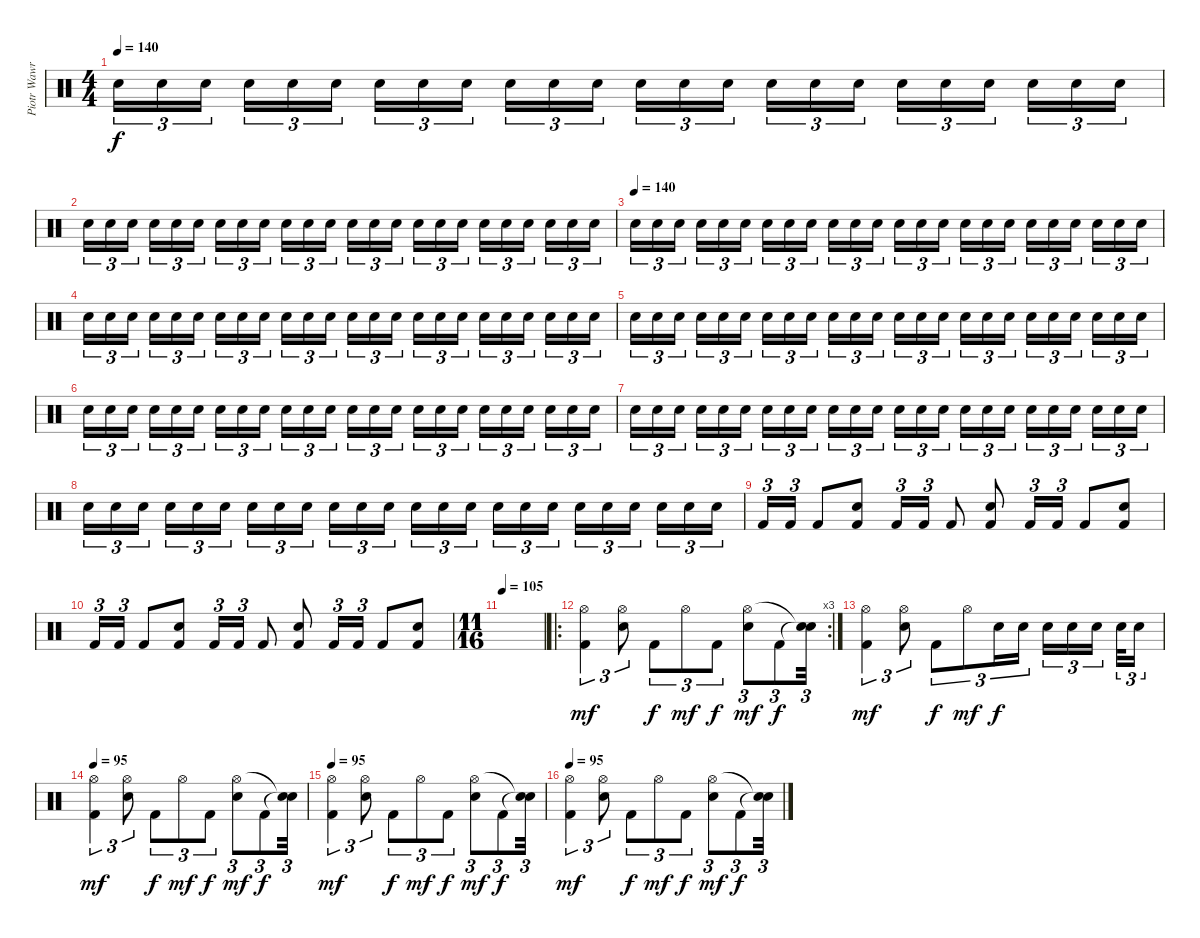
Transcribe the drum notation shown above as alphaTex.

\track ("Piotr Wawrzeniunk (drums)" "Piotr Wawr") {instrument percussion}
\staff {score}
\articulation defaults
\ts (4 4)
\tempo 140
\clef neutral
\ks c "Electric Snare (hit)".16{tu (3 2) dy f volume 11} "Electric Snare (hit)".16{tu (3 2)} "Electric Snare (hit)".16{tu (3 2)} "Electric Snare (hit)".16{tu (3 2)} "Electric Snare (hit)".16{tu (3 2)} "Electric Snare (hit)".16{tu (3 2)} "Electric Snare (hit)".16{tu (3 2)} "Electric Snare (hit)".16{tu (3 2)} "Electric Snare (hit)".16{tu (3 2)} "Electric Snare (hit)".16{tu (3 2)} "Electric Snare (hit)".16{tu (3 2)} "Electric Snare (hit)".16{tu (3 2)} "Electric Snare (hit)".16{tu (3 2)} "Electric Snare (hit)".16{tu (3 2)} "Electric Snare (hit)".16{tu (3 2)} "Electric Snare (hit)".16{tu (3 2)} "Electric Snare (hit)".16{tu (3 2)} "Electric Snare (hit)".16{tu (3 2)} "Electric Snare (hit)".16{tu (3 2)} "Electric Snare (hit)".16{tu (3 2)} "Electric Snare (hit)".16{tu (3 2)} "Electric Snare (hit)".16{tu (3 2)} "Electric Snare (hit)".16{tu (3 2)} "Electric Snare (hit)".16{tu (3 2)}
|
"Electric Snare (hit)".16{tu (3 2)} "Electric Snare (hit)".16{tu (3 2)} "Electric Snare (hit)".16{tu (3 2)} "Electric Snare (hit)".16{tu (3 2)} "Electric Snare (hit)".16{tu (3 2)} "Electric Snare (hit)".16{tu (3 2)} "Electric Snare (hit)".16{tu (3 2)} "Electric Snare (hit)".16{tu (3 2)} "Electric Snare (hit)".16{tu (3 2)} "Electric Snare (hit)".16{tu (3 2)} "Electric Snare (hit)".16{tu (3 2)} "Electric Snare (hit)".16{tu (3 2)} "Electric Snare (hit)".16{tu (3 2)} "Electric Snare (hit)".16{tu (3 2)} "Electric Snare (hit)".16{tu (3 2)} "Electric Snare (hit)".16{tu (3 2)} "Electric Snare (hit)".16{tu (3 2)} "Electric Snare (hit)".16{tu (3 2)} "Electric Snare (hit)".16{tu (3 2)} "Electric Snare (hit)".16{tu (3 2)} "Electric Snare (hit)".16{tu (3 2)} "Electric Snare (hit)".16{tu (3 2)} "Electric Snare (hit)".16{tu (3 2)} "Electric Snare (hit)".16{tu (3 2)} |
\tempo (140)
"Electric Snare (hit)".16{tu (3 2) volume 11} "Electric Snare (hit)".16{tu (3 2)} "Electric Snare (hit)".16{tu (3 2)} "Electric Snare (hit)".16{tu (3 2)} "Electric Snare (hit)".16{tu (3 2)} "Electric Snare (hit)".16{tu (3 2)} "Electric Snare (hit)".16{tu (3 2)} "Electric Snare (hit)".16{tu (3 2)} "Electric Snare (hit)".16{tu (3 2)} "Electric Snare (hit)".16{tu (3 2)} "Electric Snare (hit)".16{tu (3 2)} "Electric Snare (hit)".16{tu (3 2)} "Electric Snare (hit)".16{tu (3 2)} "Electric Snare (hit)".16{tu (3 2)} "Electric Snare (hit)".16{tu (3 2)} "Electric Snare (hit)".16{tu (3 2)} "Electric Snare (hit)".16{tu (3 2)} "Electric Snare (hit)".16{tu (3 2)} "Electric Snare (hit)".16{tu (3 2)} "Electric Snare (hit)".16{tu (3 2)} "Electric Snare (hit)".16{tu (3 2)} "Electric Snare (hit)".16{tu (3 2)} "Electric Snare (hit)".16{tu (3 2)} "Electric Snare (hit)".16{tu (3 2)} |
"Electric Snare (hit)".16{tu (3 2)} "Electric Snare (hit)".16{tu (3 2)} "Electric Snare (hit)".16{tu (3 2)} "Electric Snare (hit)".16{tu (3 2)} "Electric Snare (hit)".16{tu (3 2)} "Electric Snare (hit)".16{tu (3 2)} "Electric Snare (hit)".16{tu (3 2)} "Electric Snare (hit)".16{tu (3 2)} "Electric Snare (hit)".16{tu (3 2)} "Electric Snare (hit)".16{tu (3 2)} "Electric Snare (hit)".16{tu (3 2)} "Electric Snare (hit)".16{tu (3 2)} "Electric Snare (hit)".16{tu (3 2)} "Electric Snare (hit)".16{tu (3 2)} "Electric Snare (hit)".16{tu (3 2)} "Electric Snare (hit)".16{tu (3 2)} "Electric Snare (hit)".16{tu (3 2)} "Electric Snare (hit)".16{tu (3 2)} "Electric Snare (hit)".16{tu (3 2)} "Electric Snare (hit)".16{tu (3 2)} "Electric Snare (hit)".16{tu (3 2)} "Electric Snare (hit)".16{tu (3 2)} "Electric Snare (hit)".16{tu (3 2)} "Electric Snare (hit)".16{tu (3 2)} |
"Electric Snare (hit)".16{tu (3 2)} "Electric Snare (hit)".16{tu (3 2)} "Electric Snare (hit)".16{tu (3 2)} "Electric Snare (hit)".16{tu (3 2)} "Electric Snare (hit)".16{tu (3 2)} "Electric Snare (hit)".16{tu (3 2)} "Electric Snare (hit)".16{tu (3 2)} "Electric Snare (hit)".16{tu (3 2)} "Electric Snare (hit)".16{tu (3 2)} "Electric Snare (hit)".16{tu (3 2)} "Electric Snare (hit)".16{tu (3 2)} "Electric Snare (hit)".16{tu (3 2)} "Electric Snare (hit)".16{tu (3 2)} "Electric Snare (hit)".16{tu (3 2)} "Electric Snare (hit)".16{tu (3 2)} "Electric Snare (hit)".16{tu (3 2)} "Electric Snare (hit)".16{tu (3 2)} "Electric Snare (hit)".16{tu (3 2)} "Electric Snare (hit)".16{tu (3 2)} "Electric Snare (hit)".16{tu (3 2)} "Electric Snare (hit)".16{tu (3 2)} "Electric Snare (hit)".16{tu (3 2)} "Electric Snare (hit)".16{tu (3 2)} "Electric Snare (hit)".16{tu (3 2)} |
"Electric Snare (hit)".16{tu (3 2)} "Electric Snare (hit)".16{tu (3 2)} "Electric Snare (hit)".16{tu (3 2)} "Electric Snare (hit)".16{tu (3 2)} "Electric Snare (hit)".16{tu (3 2)} "Electric Snare (hit)".16{tu (3 2)} "Electric Snare (hit)".16{tu (3 2)} "Electric Snare (hit)".16{tu (3 2)} "Electric Snare (hit)".16{tu (3 2)} "Electric Snare (hit)".16{tu (3 2)} "Electric Snare (hit)".16{tu (3 2)} "Electric Snare (hit)".16{tu (3 2)} "Electric Snare (hit)".16{tu (3 2)} "Electric Snare (hit)".16{tu (3 2)} "Electric Snare (hit)".16{tu (3 2)} "Electric Snare (hit)".16{tu (3 2)} "Electric Snare (hit)".16{tu (3 2)} "Electric Snare (hit)".16{tu (3 2)} "Electric Snare (hit)".16{tu (3 2)} "Electric Snare (hit)".16{tu (3 2)} "Electric Snare (hit)".16{tu (3 2)} "Electric Snare (hit)".16{tu (3 2)} "Electric Snare (hit)".16{tu (3 2)} "Electric Snare (hit)".16{tu (3 2)} |
"Electric Snare (hit)".16{tu (3 2)} "Electric Snare (hit)".16{tu (3 2)} "Electric Snare (hit)".16{tu (3 2)} "Electric Snare (hit)".16{tu (3 2)} "Electric Snare (hit)".16{tu (3 2)} "Electric Snare (hit)".16{tu (3 2)} "Electric Snare (hit)".16{tu (3 2)} "Electric Snare (hit)".16{tu (3 2)} "Electric Snare (hit)".16{tu (3 2)} "Electric Snare (hit)".16{tu (3 2)} "Electric Snare (hit)".16{tu (3 2)} "Electric Snare (hit)".16{tu (3 2)} "Electric Snare (hit)".16{tu (3 2)} "Electric Snare (hit)".16{tu (3 2)} "Electric Snare (hit)".16{tu (3 2)} "Electric Snare (hit)".16{tu (3 2)} "Electric Snare (hit)".16{tu (3 2)} "Electric Snare (hit)".16{tu (3 2)} "Electric Snare (hit)".16{tu (3 2)} "Electric Snare (hit)".16{tu (3 2)} "Electric Snare (hit)".16{tu (3 2)} "Electric Snare (hit)".16{tu (3 2)} "Electric Snare (hit)".16{tu (3 2)} "Electric Snare (hit)".16{tu (3 2)} |
"Electric Snare (hit)".16{tu (3 2)} "Electric Snare (hit)".16{tu (3 2)} "Electric Snare (hit)".16{tu (3 2)} "Electric Snare (hit)".16{tu (3 2)} "Electric Snare (hit)".16{tu (3 2)} "Electric Snare (hit)".16{tu (3 2)} "Electric Snare (hit)".16{tu (3 2)} "Electric Snare (hit)".16{tu (3 2)} "Electric Snare (hit)".16{tu (3 2)} "Electric Snare (hit)".16{tu (3 2)} "Electric Snare (hit)".16{tu (3 2)} "Electric Snare (hit)".16{tu (3 2)} "Electric Snare (hit)".16{tu (3 2)} "Electric Snare (hit)".16{tu (3 2)} "Electric Snare (hit)".16{tu (3 2)} "Electric Snare (hit)".16{tu (3 2)} "Electric Snare (hit)".16{tu (3 2)} "Electric Snare (hit)".16{tu (3 2)} "Electric Snare (hit)".16{tu (3 2)} "Electric Snare (hit)".16{tu (3 2)} "Electric Snare (hit)".16{tu (3 2)} "Electric Snare (hit)".16{tu (3 2)} "Electric Snare (hit)".16{tu (3 2)} "Electric Snare (hit)".16{tu (3 2)} |
"Kick (hit) 2".16{tu (3 2)} "Kick (hit) 2".16{tu (3 2)} "Kick (hit) 2".8 ("Electric Snare (hit)" "Kick (hit) 2").8 "Kick (hit) 2".16{tu (3 2)} "Kick (hit) 2".16{tu (3 2)} "Kick (hit) 2".8 ("Electric Snare (hit)" "Kick (hit) 2").8 "Kick (hit) 2".16{tu (3 2)} "Kick (hit) 2".16{tu (3 2)} "Kick (hit) 2".8 ("Electric Snare (hit)" "Kick (hit) 2").8 |
"Kick (hit) 2".16{tu (3 2)} "Kick (hit) 2".16{tu (3 2)} "Kick (hit) 2".8 ("Electric Snare (hit)" "Kick (hit) 2").8 "Kick (hit) 2".16{tu (3 2)} "Kick (hit) 2".16{tu (3 2)} "Kick (hit) 2".8 ("Electric Snare (hit)" "Kick (hit) 2").8 "Kick (hit) 2".16{tu (3 2)} "Kick (hit) 2".16{tu (3 2)} "Kick (hit) 2".8 ("Electric Snare (hit)" "Kick (hit) 2").8 |
\ts (11 16)
\tempo 105
|
\ro
\rc 3
("Kick (hit) 2" "Hi-Hat (open)").4{tu (3 2) dy mf} ("Electric Snare (hit)" "Hi-Hat (open)").8{tu (3 2)} "Kick (hit) 2".8{tu (3 2) dy f} "Hi-Hat (open)".8{tu (3 2) dy mf} "Kick (hit) 2".8{tu (3 2) dy f} ("Electric Snare (hit)" "Hi-Hat (open)").8{tu (3 2) dy mf} "Kick (hit) 2".8{tu (3 2) dy f} ("Snare (hit)"{t} "Snare (hit)"{t}).32{tu (3 2)} |
("Kick (hit) 2" "Hi-Hat (open)").4{tu (3 2) dy mf} ("Electric Snare (hit)" "Hi-Hat (open)").8{tu (3 2)} "Kick (hit) 2".8{tu (3 2) dy f} "Hi-Hat (open)".8{tu (3 2) dy mf} "Electric Snare (hit)".16{tu (3 2) dy f} "Electric Snare (hit)".16{tu (3 2)} "Electric Snare (hit)".16{tu (3 2)} "Electric Snare (hit)".16{tu (3 2)} "Electric Snare (hit)".16{tu (3 2)} "Electric Snare (hit)".32{tu (3 2)} "Electric Snare (hit)".16{tu (3 2)} |
\tempo 95
("Kick (hit) 2" "Hi-Hat (open)").4{tu (3 2) dy mf} ("Electric Snare (hit)" "Hi-Hat (open)").8{tu (3 2)} "Kick (hit) 2".8{tu (3 2) dy f} "Hi-Hat (open)".8{tu (3 2) dy mf} "Kick (hit) 2".8{tu (3 2) dy f} ("Electric Snare (hit)" "Hi-Hat (open)").8{tu (3 2) dy mf} "Kick (hit) 2".8{tu (3 2) dy f} ("Snare (hit)"{t} "Snare (hit)"{t}).32{tu (3 2)} |
\tempo 95
("Kick (hit) 2" "Hi-Hat (open)").4{tu (3 2) dy mf} ("Electric Snare (hit)" "Hi-Hat (open)").8{tu (3 2)} "Kick (hit) 2".8{tu (3 2) dy f} "Hi-Hat (open)".8{tu (3 2) dy mf} "Kick (hit) 2".8{tu (3 2) dy f} ("Electric Snare (hit)" "Hi-Hat (open)").8{tu (3 2) dy mf} "Kick (hit) 2".8{tu (3 2) dy f} ("Snare (hit)"{t} "Snare (hit)"{t}).32{tu (3 2)} |
\tempo 95
("Kick (hit) 2" "Hi-Hat (open)").4{tu (3 2) dy mf} ("Electric Snare (hit)" "Hi-Hat (open)").8{tu (3 2)} "Kick (hit) 2".8{tu (3 2) dy f} "Hi-Hat (open)".8{tu (3 2) dy mf} "Kick (hit) 2".8{tu (3 2) dy f} ("Electric Snare (hit)" "Hi-Hat (open)").8{tu (3 2) dy mf} "Kick (hit) 2".8{tu (3 2) dy f} ("Snare (hit)"{t} "Snare (hit)"{t}).32{tu (3 2)}
